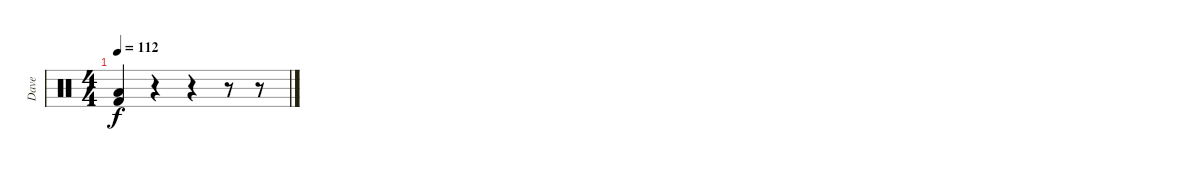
\track ("Dave" "Dave") {instrument percussion}
\staff {score}
\articulation defaults
\ts (4 4)
\tempo 112
\clef neutral
\ks c
("Low Tom (hit)" "Kick (hit) 2").4{dy f} r.4 r.4 r.8 r.8
